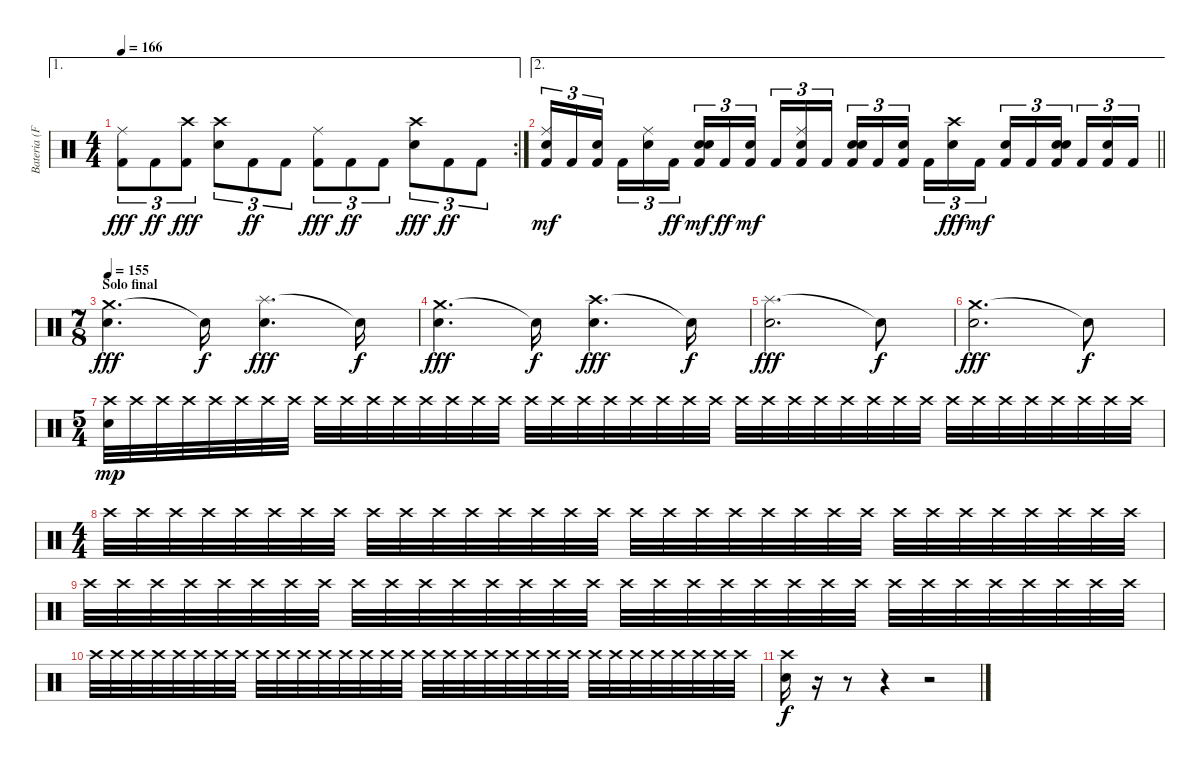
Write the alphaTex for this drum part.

\track ("Bateria (Fernando Scarcella)" "Bateria (F") {instrument percussion}
\staff {score}
\articulation defaults
\ae 1
\rc 2
\ts (4 4)
\tempo 166
\clef neutral
\ks c
("Kick (hit) 2" "Ride (middle)").8{tu (3 2) dy fff} "Kick (hit) 2".8{tu (3 2) dy ff} ("Kick (hit) 2" "Crash high (hit)").8{tu (3 2) dy fff} ("Electric Snare (hit)" "Crash high (hit)").8{tu (3 2)} "Kick (hit) 2".8{tu (3 2) dy ff} "Kick (hit) 2".8{tu (3 2)} ("Kick (hit) 2" "Ride (middle)").8{tu (3 2) dy fff} "Kick (hit) 2".8{tu (3 2) dy ff} "Kick (hit) 2".8{tu (3 2)} ("Electric Snare (hit)" "Crash high (hit)").8{tu (3 2) dy fff} "Kick (hit) 2".8{tu (3 2) dy ff} "Kick (hit) 2".8{tu (3 2)} |
\ae 2
\barLineRight lightlight
("Kick (hit) 2" "Ride (middle)" "Snare (hit) 2").16{tu (3 2) dy mf} "Kick (hit) 2".16{tu (3 2)} ("Kick (hit) 2" "Electric Snare (hit)").16{tu (3 2) beam splitsecondary} "Kick (hit) 2".16{tu (3 2)} ("Ride (middle)" "Electric Snare (hit)").16{tu (3 2)} "Kick (hit) 2".16{tu (3 2) dy ff} ("Kick (hit) 2" "Electric Snare (hit)" "Snare (hit) 2").16{tu (3 2) dy mf} "Kick (hit) 2".16{tu (3 2) dy ff} ("Kick (hit) 2" "Electric Snare (hit)").16{tu (3 2) dy mf beam splitsecondary} "Kick (hit) 2".16{tu (3 2)} ("Kick (hit) 2" "Ride (middle)" "Electric Snare (hit)").16{tu (3 2)} "Kick (hit) 2".16{tu (3 2)} ("Kick (hit) 2" "Electric Snare (hit)" "Snare (hit) 2").16{tu (3 2)} "Kick (hit) 2".16{tu (3 2)} ("Kick (hit) 2" "Electric Snare (hit)").16{tu (3 2) beam splitsecondary} "Kick (hit) 2".16{tu (3 2)} ("Electric Snare (hit)" "Crash high (hit)").16{tu (3 2) dy fff} "Kick (hit) 2".16{tu (3 2) dy mf} ("Kick (hit) 2" "Electric Snare (hit)").16{tu (3 2)} "Kick (hit) 2".16{tu (3 2)} ("Kick (hit) 2" "Electric Snare (hit)" "Snare (hit) 2").16{tu (3 2) beam splitsecondary} "Kick (hit) 2".16{tu (3 2)} ("Kick (hit) 2" "Electric Snare (hit)").16{tu (3 2)} "Kick (hit) 2".16{tu (3 2)} |
\ts (7 8)
\section ("" "Solo final")
\tempo 155
("Crash medium (hit)" "Snare (hit) 2").4{d dy fff} "Snare (hit)"{t}.16{dy f} ("Splash (hit)" "Snare (hit) 2").4{d dy fff} "Snare (hit)"{t}.16{dy f} |
("Crash medium (hit)" "Snare (hit) 2").4{d dy fff} "Snare (hit)"{t}.16{dy f} ("Crash high (hit)" "Snare (hit) 2").4{d dy fff} "Snare (hit)"{t}.16{dy f} |
("Splash (hit)" "Snare (hit) 2").2{d dy fff} "Snare (hit)"{t}.8{dy f} |
("Crash medium (hit)" "Snare (hit) 2").2{d dy fff} "Snare (hit)"{t}.8{dy f} |
\ts (5 4)
("Crash high (hit)" "Snare (hit) 2").32{dy mp} "Crash high (hit)".32 "Crash high (hit)".32 "Crash high (hit)".32 "Crash high (hit)".32 "Crash high (hit)".32 "Crash high (hit)".32 "Crash high (hit)".32 "Crash high (hit)".32 "Crash high (hit)".32 "Crash high (hit)".32 "Crash high (hit)".32 "Crash high (hit)".32 "Crash high (hit)".32 "Crash high (hit)".32 "Crash high (hit)".32 "Crash high (hit)".32 "Crash high (hit)".32 "Crash high (hit)".32 "Crash high (hit)".32 "Crash high (hit)".32 "Crash high (hit)".32 "Crash high (hit)".32 "Crash high (hit)".32 "Crash high (hit)".32 "Crash high (hit)".32 "Crash high (hit)".32 "Crash high (hit)".32 "Crash high (hit)".32 "Crash high (hit)".32 "Crash high (hit)".32 "Crash high (hit)".32 "Crash high (hit)".32 "Crash high (hit)".32 "Crash high (hit)".32 "Crash high (hit)".32 "Crash high (hit)".32 "Crash high (hit)".32 "Crash high (hit)".32 "Crash high (hit)".32 |
\ts (4 4)
"Crash high (hit)".32 "Crash high (hit)".32 "Crash high (hit)".32 "Crash high (hit)".32 "Crash high (hit)".32 "Crash high (hit)".32 "Crash high (hit)".32 "Crash high (hit)".32 "Crash high (hit)".32 "Crash high (hit)".32 "Crash high (hit)".32 "Crash high (hit)".32 "Crash high (hit)".32 "Crash high (hit)".32 "Crash high (hit)".32 "Crash high (hit)".32 "Crash high (hit)".32 "Crash high (hit)".32 "Crash high (hit)".32 "Crash high (hit)".32 "Crash high (hit)".32 "Crash high (hit)".32 "Crash high (hit)".32 "Crash high (hit)".32 "Crash high (hit)".32 "Crash high (hit)".32 "Crash high (hit)".32 "Crash high (hit)".32 "Crash high (hit)".32 "Crash high (hit)".32 "Crash high (hit)".32 "Crash high (hit)".32 |
"Crash high (hit)".32 "Crash high (hit)".32 "Crash high (hit)".32 "Crash high (hit)".32 "Crash high (hit)".32 "Crash high (hit)".32 "Crash high (hit)".32 "Crash high (hit)".32 "Crash high (hit)".32 "Crash high (hit)".32 "Crash high (hit)".32 "Crash high (hit)".32 "Crash high (hit)".32 "Crash high (hit)".32 "Crash high (hit)".32 "Crash high (hit)".32 "Crash high (hit)".32 "Crash high (hit)".32 "Crash high (hit)".32 "Crash high (hit)".32 "Crash high (hit)".32 "Crash high (hit)".32 "Crash high (hit)".32 "Crash high (hit)".32 "Crash high (hit)".32 "Crash high (hit)".32 "Crash high (hit)".32 "Crash high (hit)".32 "Crash high (hit)".32 "Crash high (hit)".32 "Crash high (hit)".32 "Crash high (hit)".32 |
"Crash high (hit)".32 "Crash high (hit)".32 "Crash high (hit)".32 "Crash high (hit)".32 "Crash high (hit)".32 "Crash high (hit)".32 "Crash high (hit)".32 "Crash high (hit)".32 "Crash high (hit)".32 "Crash high (hit)".32 "Crash high (hit)".32 "Crash high (hit)".32 "Crash high (hit)".32 "Crash high (hit)".32 "Crash high (hit)".32 "Crash high (hit)".32 "Crash high (hit)".32 "Crash high (hit)".32 "Crash high (hit)".32 "Crash high (hit)".32 "Crash high (hit)".32 "Crash high (hit)".32 "Crash high (hit)".32 "Crash high (hit)".32 "Crash high (hit)".32 "Crash high (hit)".32 "Crash high (hit)".32 "Crash high (hit)".32 "Crash high (hit)".32 "Crash high (hit)".32 "Crash high (hit)".32 "Crash high (hit)".32 |
("Crash high (hit)" "Snare (hit) 2").16{dy f} r.16 r.8 r.4 r.2
